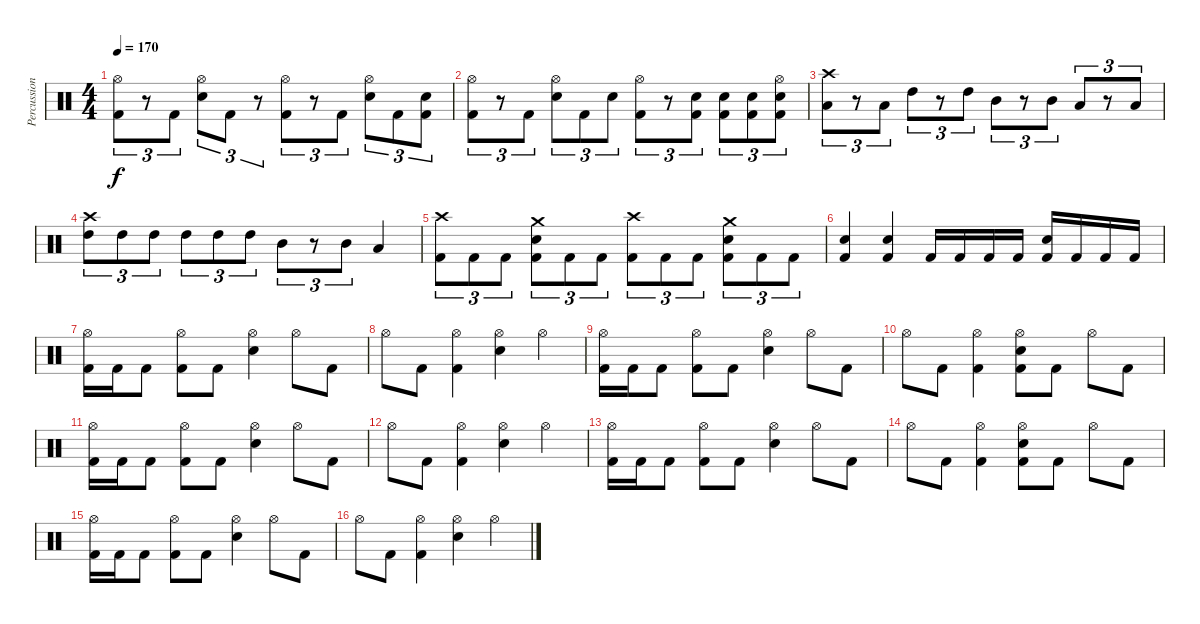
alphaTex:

\track ("Percussion" "Percussion") {instrument percussion}
\staff {score}
\articulation defaults
\ts (4 4)
\tempo 170
\clef neutral
\ks c
("Hi-Hat (open)" "Kick (hit) 2").8{tu (3 2) dy f} r.8{tu (3 2)} "Kick (hit) 2".8{tu (3 2)} ("Hi-Hat (open)" "Snare (hit) 2").8{tu (3 2)} "Kick (hit) 2".8{tu (3 2)} r.8{tu (3 2)} ("Hi-Hat (open)" "Kick (hit) 2").8{tu (3 2)} r.8{tu (3 2)} "Kick (hit) 2".8{tu (3 2)} ("Hi-Hat (open)" "Snare (hit) 2").8{tu (3 2)} "Kick (hit) 2".8{tu (3 2)} ("Snare (hit) 2" "Kick (hit) 2").8{tu (3 2)} |
("Hi-Hat (open)" "Kick (hit) 2").8{tu (3 2)} r.8{tu (3 2)} "Kick (hit) 2".8{tu (3 2)} ("Hi-Hat (open)" "Snare (hit) 2").8{tu (3 2)} "Kick (hit) 2".8{tu (3 2)} "Snare (hit) 2".8{tu (3 2)} ("Hi-Hat (open)" "Kick (hit) 2").8{tu (3 2)} r.8{tu (3 2)} ("Snare (hit) 2" "Kick (hit) 2").8{tu (3 2)} ("Snare (hit) 2" "Kick (hit) 2").8{tu (3 2)} ("Snare (hit) 2" "Kick (hit) 2").8{tu (3 2)} ("Hi-Hat (open)" "Snare (hit) 2" "Kick (hit) 2").8{tu (3 2)} |
("Crash high (hit)" "Low Tom (hit)").8{tu (3 2)} r.8{tu (3 2)} "Low Tom (hit)".8{tu (3 2)} "High Tom (hit)".8{tu (3 2)} r.8{tu (3 2)} "High Tom (hit)".8{tu (3 2)} "Mid Tom (hit)".8{tu (3 2)} r.8{tu (3 2)} "Mid Tom (hit)".8{tu (3 2)} "Low Tom (hit)".8{tu (3 2)} r.8{tu (3 2)} "Low Tom (hit)".8{tu (3 2)} |
("Crash high (hit)" "High Tom (hit)").8{tu (3 2)} "High Tom (hit)".8{tu (3 2)} "High Tom (hit)".8{tu (3 2)} "High Tom (hit)".8{tu (3 2)} "High Tom (hit)".8{tu (3 2)} "High Tom (hit)".8{tu (3 2)} "Mid Tom (hit)".8{tu (3 2)} r.8{tu (3 2)} "Mid Tom (hit)".8{tu (3 2)} "Low Tom (hit)".4 |
("Crash high (hit)" "Kick (hit) 2").8{tu (3 2)} "Kick (hit) 2".8{tu (3 2)} "Kick (hit) 2".8{tu (3 2)} ("Crash medium (hit)" "Snare (hit) 2" "Kick (hit) 2").8{tu (3 2)} "Kick (hit) 2".8{tu (3 2)} "Kick (hit) 2".8{tu (3 2)} ("Crash high (hit)" "Kick (hit) 2").8{tu (3 2)} "Kick (hit) 2".8{tu (3 2)} "Kick (hit) 2".8{tu (3 2)} ("Crash medium (hit)" "Snare (hit) 2" "Kick (hit) 2").8{tu (3 2)} "Kick (hit) 2".8{tu (3 2)} "Kick (hit) 2".8{tu (3 2)} |
("Snare (hit) 2" "Kick (hit) 2").4 ("Snare (hit) 2" "Kick (hit) 2").4 "Kick (hit) 2".16 "Kick (hit) 2".16 "Kick (hit) 2".16 "Kick (hit) 2".16 ("Snare (hit) 2" "Kick (hit) 2").16 "Kick (hit) 2".16 "Kick (hit) 2".16 "Kick (hit) 2".16 |
("Hi-Hat (open)" "Kick (hit) 2").16 "Kick (hit) 2".16 "Kick (hit) 2".8 ("Hi-Hat (open)" "Kick (hit) 2").8 "Kick (hit) 2".8 ("Hi-Hat (open)" "Snare (hit) 2").4 "Hi-Hat (open)".8 "Kick (hit) 2".8 |
"Hi-Hat (open)".8 "Kick (hit) 2".8 ("Hi-Hat (open)" "Kick (hit) 2").4 ("Hi-Hat (open)" "Snare (hit) 2").4 "Hi-Hat (open)".4 |
("Hi-Hat (open)" "Kick (hit) 2").16 "Kick (hit) 2".16 "Kick (hit) 2".8 ("Hi-Hat (open)" "Kick (hit) 2").8 "Kick (hit) 2".8 ("Hi-Hat (open)" "Snare (hit) 2").4 "Hi-Hat (open)".8 "Kick (hit) 2".8 |
"Hi-Hat (open)".8 "Kick (hit) 2".8 ("Hi-Hat (open)" "Kick (hit) 2").4 ("Hi-Hat (open)" "Snare (hit) 2" "Kick (hit) 2").8 "Kick (hit) 2".8 "Hi-Hat (open)".8 "Kick (hit) 2".8 |
("Hi-Hat (open)" "Kick (hit) 2").16 "Kick (hit) 2".16 "Kick (hit) 2".8 ("Hi-Hat (open)" "Kick (hit) 2").8 "Kick (hit) 2".8 ("Hi-Hat (open)" "Snare (hit) 2").4 "Hi-Hat (open)".8 "Kick (hit) 2".8 |
"Hi-Hat (open)".8 "Kick (hit) 2".8 ("Hi-Hat (open)" "Kick (hit) 2").4 ("Hi-Hat (open)" "Snare (hit) 2").4 "Hi-Hat (open)".4 |
("Hi-Hat (open)" "Kick (hit) 2").16 "Kick (hit) 2".16 "Kick (hit) 2".8 ("Hi-Hat (open)" "Kick (hit) 2").8 "Kick (hit) 2".8 ("Hi-Hat (open)" "Snare (hit) 2").4 "Hi-Hat (open)".8 "Kick (hit) 2".8 |
"Hi-Hat (open)".8 "Kick (hit) 2".8 ("Hi-Hat (open)" "Kick (hit) 2").4 ("Hi-Hat (open)" "Snare (hit) 2" "Kick (hit) 2").8 "Kick (hit) 2".8 "Hi-Hat (open)".8 "Kick (hit) 2".8 |
("Hi-Hat (open)" "Kick (hit) 2").16 "Kick (hit) 2".16 "Kick (hit) 2".8 ("Hi-Hat (open)" "Kick (hit) 2").8 "Kick (hit) 2".8 ("Hi-Hat (open)" "Snare (hit) 2").4 "Hi-Hat (open)".8 "Kick (hit) 2".8 |
"Hi-Hat (open)".8 "Kick (hit) 2".8 ("Hi-Hat (open)" "Kick (hit) 2").4 ("Hi-Hat (open)" "Snare (hit) 2").4 "Hi-Hat (open)".4
